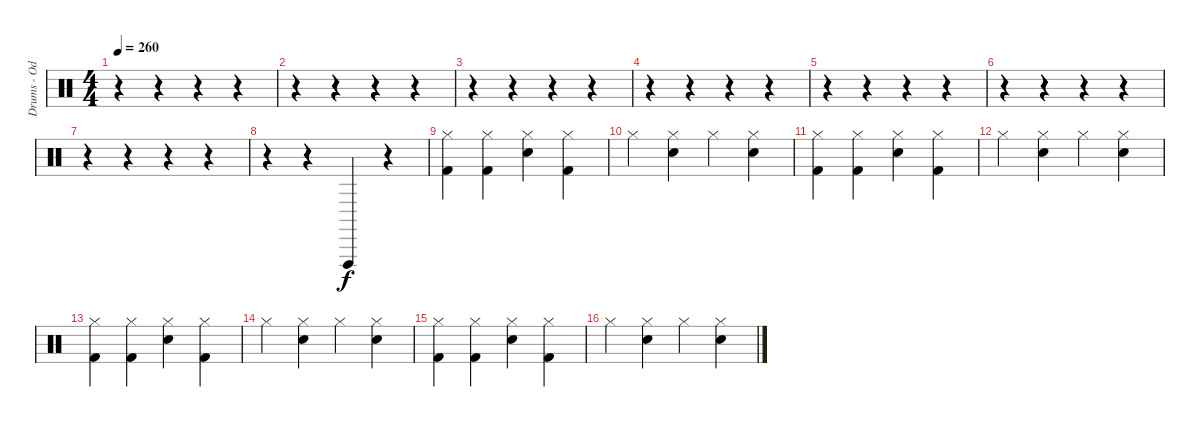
\track ("Drums - Oded Perach" "Drums - Od") {instrument percussion}
\staff {score}
\articulation defaults
\ts (4 4)
\tempo 260
\clef neutral
\ks c
r.4{dy f} r.4 r.4 r.4 |
r.4 r.4 r.4 r.4 |
r.4 r.4 r.4 r.4 |
r.4 r.4 r.4 r.4 |
r.4 r.4 r.4 r.4 |
r.4 r.4 r.4 r.4 |
r.4 r.4 r.4 r.4 |
r.4 r.4 "Vibraslap (hit)".4 r.4 |
("Hi-Hat (closed)" "Kick (hit) 2").4 ("Hi-Hat (closed)" "Kick (hit) 2").4 ("Hi-Hat (closed)" "Snare (hit) 2").4 ("Hi-Hat (closed)" "Kick (hit) 2").4 |
"Hi-Hat (closed)".4 ("Hi-Hat (closed)" "Snare (hit) 2").4 "Hi-Hat (closed)".4 ("Hi-Hat (closed)" "Snare (hit) 2").4 |
("Hi-Hat (closed)" "Kick (hit) 2").4 ("Hi-Hat (closed)" "Kick (hit) 2").4 ("Hi-Hat (closed)" "Snare (hit) 2").4 ("Hi-Hat (closed)" "Kick (hit) 2").4 |
"Hi-Hat (closed)".4 ("Hi-Hat (closed)" "Snare (hit) 2").4 "Hi-Hat (closed)".4 ("Hi-Hat (closed)" "Snare (hit) 2").4 |
("Hi-Hat (closed)" "Kick (hit) 2").4 ("Hi-Hat (closed)" "Kick (hit) 2").4 ("Hi-Hat (closed)" "Snare (hit) 2").4 ("Hi-Hat (closed)" "Kick (hit) 2").4 |
"Hi-Hat (closed)".4 ("Hi-Hat (closed)" "Snare (hit) 2").4 "Hi-Hat (closed)".4 ("Hi-Hat (closed)" "Snare (hit) 2").4 |
("Hi-Hat (closed)" "Kick (hit) 2").4 ("Hi-Hat (closed)" "Kick (hit) 2").4 ("Hi-Hat (closed)" "Snare (hit) 2").4 ("Hi-Hat (closed)" "Kick (hit) 2").4 |
"Hi-Hat (closed)".4 ("Hi-Hat (closed)" "Snare (hit) 2").4 "Hi-Hat (closed)".4 ("Hi-Hat (closed)" "Snare (hit) 2").4
